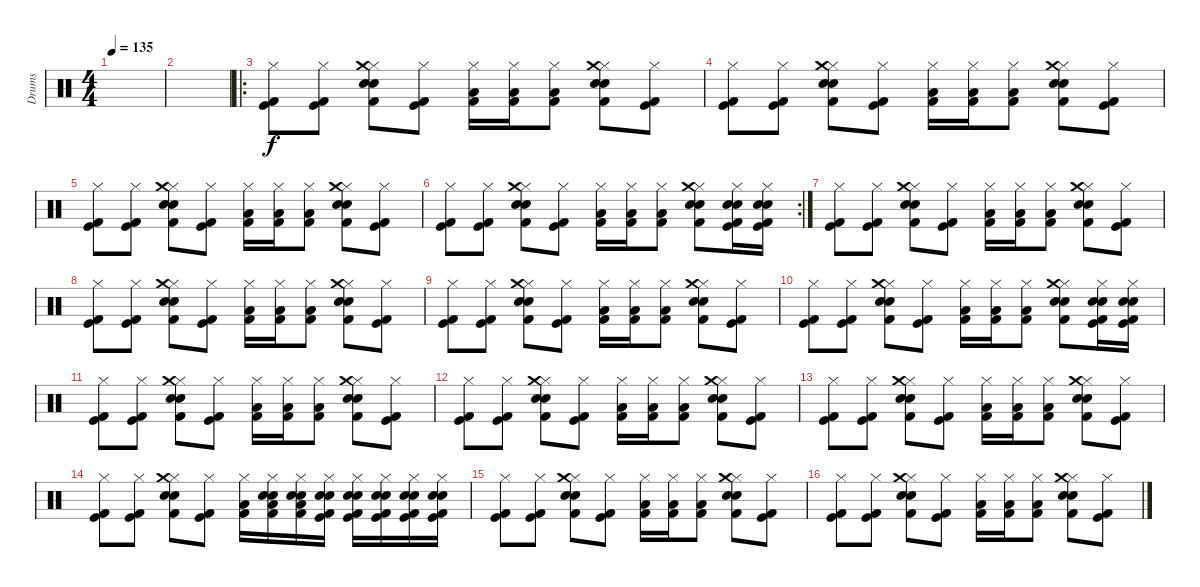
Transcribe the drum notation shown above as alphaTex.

\track ("Drums" "Drums") {instrument percussion}
\staff {score}
\articulation defaults
\ts (4 4)
\tempo 135
\clef neutral
\ks c
|
|
\ro
("Hi-Hat (closed)" "Kick (hit)" "Kick (hit) 2").8 ("Hi-Hat (closed)" "Kick (hit)" "Kick (hit) 2").8 ("Hi-Hat (closed)" "Electric Snare (hit)" "Crash medium (hit)" "Snare (hit) 2" "Kick (hit) 2").8 ("Hi-Hat (closed)" "Kick (hit)" "Kick (hit) 2").8 ("Hi-Hat (closed)" "Low Floor Tom (hit)" "Kick (hit) 2").16 ("Hi-Hat (closed)" "Low Floor Tom (hit)" "Kick (hit) 2").16 ("Hi-Hat (closed)" "Low Floor Tom (hit)" "Kick (hit) 2").8 ("Hi-Hat (closed)" "Electric Snare (hit)" "Crash medium (hit)" "Snare (hit) 2" "Kick (hit) 2").8 ("Hi-Hat (closed)" "Kick (hit)" "Kick (hit) 2").8 |
("Hi-Hat (closed)" "Kick (hit)" "Kick (hit) 2").8 ("Hi-Hat (closed)" "Kick (hit)" "Kick (hit) 2").8 ("Hi-Hat (closed)" "Electric Snare (hit)" "Crash medium (hit)" "Snare (hit) 2" "Kick (hit) 2").8 ("Hi-Hat (closed)" "Kick (hit)" "Kick (hit) 2").8 ("Hi-Hat (closed)" "Low Floor Tom (hit)" "Kick (hit) 2").16 ("Hi-Hat (closed)" "Low Floor Tom (hit)" "Kick (hit) 2").16 ("Hi-Hat (closed)" "Low Floor Tom (hit)" "Kick (hit) 2").8 ("Hi-Hat (closed)" "Electric Snare (hit)" "Crash medium (hit)" "Snare (hit) 2" "Kick (hit) 2").8 ("Hi-Hat (closed)" "Kick (hit)" "Kick (hit) 2").8 |
("Hi-Hat (closed)" "Kick (hit)" "Kick (hit) 2").8 ("Hi-Hat (closed)" "Kick (hit)" "Kick (hit) 2").8 ("Hi-Hat (closed)" "Electric Snare (hit)" "Crash medium (hit)" "Snare (hit) 2" "Kick (hit) 2").8 ("Hi-Hat (closed)" "Kick (hit)" "Kick (hit) 2").8 ("Hi-Hat (closed)" "Low Floor Tom (hit)" "Kick (hit) 2").16 ("Hi-Hat (closed)" "Low Floor Tom (hit)" "Kick (hit) 2").16 ("Hi-Hat (closed)" "Low Floor Tom (hit)" "Kick (hit) 2").8 ("Hi-Hat (closed)" "Electric Snare (hit)" "Crash medium (hit)" "Snare (hit) 2" "Kick (hit) 2").8 ("Hi-Hat (closed)" "Kick (hit)" "Kick (hit) 2").8 |
\rc 2
("Hi-Hat (closed)" "Kick (hit)" "Kick (hit) 2").8 ("Hi-Hat (closed)" "Kick (hit)" "Kick (hit) 2").8 ("Hi-Hat (closed)" "Electric Snare (hit)" "Crash medium (hit)" "Snare (hit) 2" "Kick (hit) 2").8 ("Hi-Hat (closed)" "Kick (hit)" "Kick (hit) 2").8 ("Hi-Hat (closed)" "Low Floor Tom (hit)" "Kick (hit) 2").16 ("Hi-Hat (closed)" "Low Floor Tom (hit)" "Kick (hit) 2").16 ("Hi-Hat (closed)" "Low Floor Tom (hit)" "Kick (hit) 2").8 ("Hi-Hat (closed)" "Electric Snare (hit)" "Crash medium (hit)" "Snare (hit) 2" "Kick (hit) 2").8 ("Electric Snare (hit)" "Snare (hit) 2" "Hi-Hat (closed)" "Kick (hit)" "Kick (hit) 2").16 ("Electric Snare (hit)" "Snare (hit) 2" "Hi-Hat (closed)" "Kick (hit)" "Kick (hit) 2").16 |
("Hi-Hat (closed)" "Kick (hit)" "Kick (hit) 2").8 ("Hi-Hat (closed)" "Kick (hit)" "Kick (hit) 2").8 ("Hi-Hat (closed)" "Electric Snare (hit)" "Crash medium (hit)" "Snare (hit) 2" "Kick (hit) 2").8 ("Hi-Hat (closed)" "Kick (hit)" "Kick (hit) 2").8 ("Hi-Hat (closed)" "Low Floor Tom (hit)" "Kick (hit) 2").16 ("Hi-Hat (closed)" "Low Floor Tom (hit)" "Kick (hit) 2").16 ("Hi-Hat (closed)" "Low Floor Tom (hit)" "Kick (hit) 2").8 ("Hi-Hat (closed)" "Electric Snare (hit)" "Crash medium (hit)" "Snare (hit) 2" "Kick (hit) 2").8 ("Hi-Hat (closed)" "Kick (hit)" "Kick (hit) 2").8 |
("Hi-Hat (closed)" "Kick (hit)" "Kick (hit) 2").8 ("Hi-Hat (closed)" "Kick (hit)" "Kick (hit) 2").8 ("Hi-Hat (closed)" "Electric Snare (hit)" "Crash medium (hit)" "Snare (hit) 2" "Kick (hit) 2").8 ("Hi-Hat (closed)" "Kick (hit)" "Kick (hit) 2").8 ("Hi-Hat (closed)" "Low Floor Tom (hit)" "Kick (hit) 2").16 ("Hi-Hat (closed)" "Low Floor Tom (hit)" "Kick (hit) 2").16 ("Hi-Hat (closed)" "Low Floor Tom (hit)" "Kick (hit) 2").8 ("Hi-Hat (closed)" "Electric Snare (hit)" "Crash medium (hit)" "Snare (hit) 2" "Kick (hit) 2").8 ("Hi-Hat (closed)" "Kick (hit)" "Kick (hit) 2").8 |
("Hi-Hat (closed)" "Kick (hit)" "Kick (hit) 2").8 ("Hi-Hat (closed)" "Kick (hit)" "Kick (hit) 2").8 ("Hi-Hat (closed)" "Electric Snare (hit)" "Crash medium (hit)" "Snare (hit) 2" "Kick (hit) 2").8 ("Hi-Hat (closed)" "Kick (hit)" "Kick (hit) 2").8 ("Hi-Hat (closed)" "Low Floor Tom (hit)" "Kick (hit) 2").16 ("Hi-Hat (closed)" "Low Floor Tom (hit)" "Kick (hit) 2").16 ("Hi-Hat (closed)" "Low Floor Tom (hit)" "Kick (hit) 2").8 ("Hi-Hat (closed)" "Electric Snare (hit)" "Crash medium (hit)" "Snare (hit) 2" "Kick (hit) 2").8 ("Hi-Hat (closed)" "Kick (hit)" "Kick (hit) 2").8 |
("Hi-Hat (closed)" "Kick (hit)" "Kick (hit) 2").8 ("Hi-Hat (closed)" "Kick (hit)" "Kick (hit) 2").8 ("Hi-Hat (closed)" "Electric Snare (hit)" "Crash medium (hit)" "Snare (hit) 2" "Kick (hit) 2").8 ("Hi-Hat (closed)" "Kick (hit)" "Kick (hit) 2").8 ("Hi-Hat (closed)" "Low Floor Tom (hit)" "Kick (hit) 2").16 ("Hi-Hat (closed)" "Low Floor Tom (hit)" "Kick (hit) 2").16 ("Hi-Hat (closed)" "Low Floor Tom (hit)" "Kick (hit) 2").8 ("Hi-Hat (closed)" "Electric Snare (hit)" "Crash medium (hit)" "Snare (hit) 2" "Kick (hit) 2").8 ("Electric Snare (hit)" "Snare (hit) 2" "Hi-Hat (closed)" "Kick (hit)" "Kick (hit) 2").16 ("Electric Snare (hit)" "Snare (hit) 2" "Hi-Hat (closed)" "Kick (hit)" "Kick (hit) 2").16 |
("Hi-Hat (closed)" "Kick (hit)" "Kick (hit) 2").8 ("Hi-Hat (closed)" "Kick (hit)" "Kick (hit) 2").8 ("Hi-Hat (closed)" "Electric Snare (hit)" "Crash medium (hit)" "Snare (hit) 2" "Kick (hit) 2").8 ("Hi-Hat (closed)" "Kick (hit)" "Kick (hit) 2").8 ("Hi-Hat (closed)" "Low Floor Tom (hit)" "Kick (hit) 2").16 ("Hi-Hat (closed)" "Low Floor Tom (hit)" "Kick (hit) 2").16 ("Hi-Hat (closed)" "Low Floor Tom (hit)" "Kick (hit) 2").8 ("Hi-Hat (closed)" "Electric Snare (hit)" "Crash medium (hit)" "Snare (hit) 2" "Kick (hit) 2").8 ("Hi-Hat (closed)" "Kick (hit)" "Kick (hit) 2").8 |
("Hi-Hat (closed)" "Kick (hit)" "Kick (hit) 2").8 ("Hi-Hat (closed)" "Kick (hit)" "Kick (hit) 2").8 ("Hi-Hat (closed)" "Electric Snare (hit)" "Crash medium (hit)" "Snare (hit) 2" "Kick (hit) 2").8 ("Hi-Hat (closed)" "Kick (hit)" "Kick (hit) 2").8 ("Hi-Hat (closed)" "Low Floor Tom (hit)" "Kick (hit) 2").16 ("Hi-Hat (closed)" "Low Floor Tom (hit)" "Kick (hit) 2").16 ("Hi-Hat (closed)" "Low Floor Tom (hit)" "Kick (hit) 2").8 ("Hi-Hat (closed)" "Electric Snare (hit)" "Crash medium (hit)" "Snare (hit) 2" "Kick (hit) 2").8 ("Hi-Hat (closed)" "Kick (hit)" "Kick (hit) 2").8 |
("Hi-Hat (closed)" "Kick (hit)" "Kick (hit) 2").8 ("Hi-Hat (closed)" "Kick (hit)" "Kick (hit) 2").8 ("Hi-Hat (closed)" "Electric Snare (hit)" "Crash medium (hit)" "Snare (hit) 2" "Kick (hit) 2").8 ("Hi-Hat (closed)" "Kick (hit)" "Kick (hit) 2").8 ("Hi-Hat (closed)" "Low Floor Tom (hit)" "Kick (hit) 2").16 ("Hi-Hat (closed)" "Low Floor Tom (hit)" "Kick (hit) 2").16 ("Hi-Hat (closed)" "Low Floor Tom (hit)" "Kick (hit) 2").8 ("Hi-Hat (closed)" "Electric Snare (hit)" "Crash medium (hit)" "Snare (hit) 2" "Kick (hit) 2").8 ("Hi-Hat (closed)" "Kick (hit)" "Kick (hit) 2").8 |
("Hi-Hat (closed)" "Kick (hit)" "Kick (hit) 2").8 ("Hi-Hat (closed)" "Kick (hit)" "Kick (hit) 2").8 ("Hi-Hat (closed)" "Electric Snare (hit)" "Crash medium (hit)" "Snare (hit) 2" "Kick (hit) 2").8 ("Hi-Hat (closed)" "Kick (hit)" "Kick (hit) 2").8 ("Hi-Hat (closed)" "Low Floor Tom (hit)" "Kick (hit) 2").16 ("Electric Snare (hit)" "Snare (hit) 2" "Hi-Hat (closed)" "Low Floor Tom (hit)" "Kick (hit) 2").16 ("Electric Snare (hit)" "Snare (hit) 2" "Hi-Hat (closed)" "Low Floor Tom (hit)" "Kick (hit) 2").16 ("Electric Snare (hit)" "Snare (hit) 2" "Hi-Hat (closed)" "Kick (hit)" "Kick (hit) 2").16 ("Electric Snare (hit)" "Snare (hit) 2" "Hi-Hat (closed)" "Kick (hit)" "Kick (hit) 2").16 ("Electric Snare (hit)" "Snare (hit) 2" "Hi-Hat (closed)" "Kick (hit)" "Kick (hit) 2").16 ("Electric Snare (hit)" "Snare (hit) 2" "Hi-Hat (closed)" "Kick (hit)" "Kick (hit) 2").16 ("Electric Snare (hit)" "Snare (hit) 2" "Hi-Hat (closed)" "Kick (hit)" "Kick (hit) 2").16 |
("Hi-Hat (closed)" "Kick (hit)" "Kick (hit) 2").8 ("Hi-Hat (closed)" "Kick (hit)" "Kick (hit) 2").8 ("Hi-Hat (closed)" "Electric Snare (hit)" "Crash medium (hit)" "Snare (hit) 2" "Kick (hit) 2").8 ("Hi-Hat (closed)" "Kick (hit)" "Kick (hit) 2").8 ("Hi-Hat (closed)" "Low Floor Tom (hit)" "Kick (hit) 2").16 ("Hi-Hat (closed)" "Low Floor Tom (hit)" "Kick (hit) 2").16 ("Hi-Hat (closed)" "Low Floor Tom (hit)" "Kick (hit) 2").8 ("Hi-Hat (closed)" "Electric Snare (hit)" "Crash medium (hit)" "Snare (hit) 2" "Kick (hit) 2").8 ("Hi-Hat (closed)" "Kick (hit)" "Kick (hit) 2").8 |
("Hi-Hat (closed)" "Kick (hit)" "Kick (hit) 2").8 ("Hi-Hat (closed)" "Kick (hit)" "Kick (hit) 2").8 ("Hi-Hat (closed)" "Electric Snare (hit)" "Crash medium (hit)" "Snare (hit) 2" "Kick (hit) 2").8 ("Hi-Hat (closed)" "Kick (hit)" "Kick (hit) 2").8 ("Hi-Hat (closed)" "Low Floor Tom (hit)" "Kick (hit) 2").16 ("Hi-Hat (closed)" "Low Floor Tom (hit)" "Kick (hit) 2").16 ("Hi-Hat (closed)" "Low Floor Tom (hit)" "Kick (hit) 2").8 ("Hi-Hat (closed)" "Electric Snare (hit)" "Crash medium (hit)" "Snare (hit) 2" "Kick (hit) 2").8 ("Hi-Hat (closed)" "Kick (hit)" "Kick (hit) 2").8
